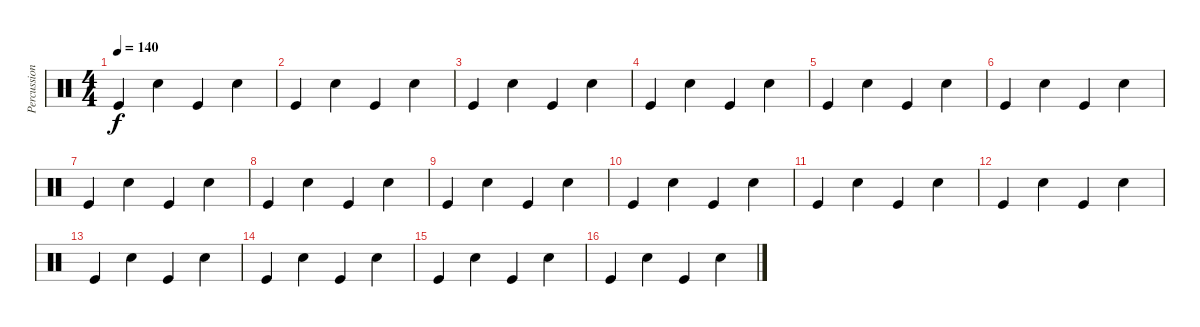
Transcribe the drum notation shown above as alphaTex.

\track ("Percussion" "Percussion") {instrument percussion}
\staff {score}
\articulation defaults
\ts (4 4)
\tempo 140
\clef neutral
\ks c "Kick (hit)".4{dy f} "Snare (hit) 2".4 "Kick (hit)".4 "Snare (hit) 2".4
|
"Kick (hit)".4 "Snare (hit) 2".4 "Kick (hit)".4 "Snare (hit) 2".4 |
"Kick (hit)".4 "Snare (hit) 2".4 "Kick (hit)".4 "Snare (hit) 2".4 |
"Kick (hit)".4 "Snare (hit) 2".4 "Kick (hit)".4 "Snare (hit) 2".4 |
"Kick (hit)".4 "Snare (hit) 2".4 "Kick (hit)".4 "Snare (hit) 2".4 |
"Kick (hit)".4 "Snare (hit) 2".4 "Kick (hit)".4 "Snare (hit) 2".4 |
"Kick (hit)".4 "Snare (hit) 2".4 "Kick (hit)".4 "Snare (hit) 2".4 |
"Kick (hit)".4 "Snare (hit) 2".4 "Kick (hit)".4 "Snare (hit) 2".4 |
"Kick (hit)".4 "Snare (hit) 2".4 "Kick (hit)".4 "Snare (hit) 2".4 |
"Kick (hit)".4 "Snare (hit) 2".4 "Kick (hit)".4 "Snare (hit) 2".4 |
"Kick (hit)".4 "Snare (hit) 2".4 "Kick (hit)".4 "Snare (hit) 2".4 |
"Kick (hit)".4 "Snare (hit) 2".4 "Kick (hit)".4 "Snare (hit) 2".4 |
"Kick (hit)".4 "Snare (hit) 2".4 "Kick (hit)".4 "Snare (hit) 2".4 |
"Kick (hit)".4 "Snare (hit) 2".4 "Kick (hit)".4 "Snare (hit) 2".4 |
"Kick (hit)".4 "Snare (hit) 2".4 "Kick (hit)".4 "Snare (hit) 2".4 |
"Kick (hit)".4 "Snare (hit) 2".4 "Kick (hit)".4 "Snare (hit) 2".4
